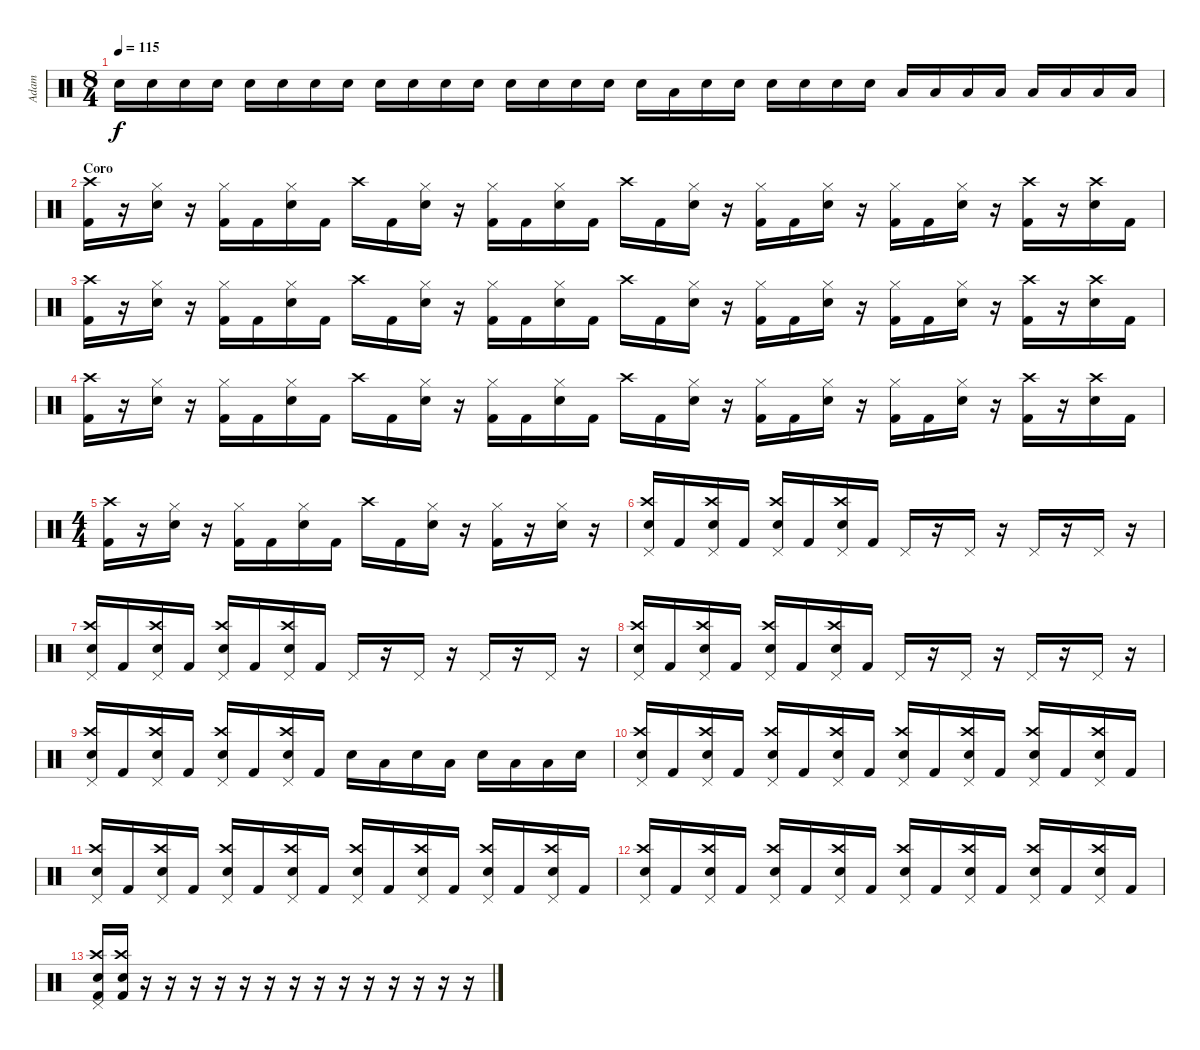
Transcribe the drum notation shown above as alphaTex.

\track ("Adam" "Adam") {instrument percussion}
\staff {score}
\articulation defaults
\ts (8 4)
\tempo 115
\clef neutral
\ks c "Snare (hit) 2".16{dy f} "Snare (hit) 2".16 "Snare (hit) 2".16 "Snare (hit) 2".16 "Snare (hit) 2".16 "Snare (hit) 2".16 "Snare (hit) 2".16 "Snare (hit) 2".16 "Snare (hit) 2".16 "Snare (hit) 2".16 "Snare (hit) 2".16 "Snare (hit) 2".16 "Snare (hit) 2".16 "Snare (hit) 2".16 "Snare (hit) 2".16 "Snare (hit) 2".16 "Snare (hit) 2".16 "Low Tom (hit)".16 "Snare (hit) 2".16 "Snare (hit) 2".16 "Snare (hit) 2".16 "Snare (hit) 2".16 "Snare (hit) 2".16 "Snare (hit) 2".16 "Low Tom (hit)".16 "Low Tom (hit)".16 "Low Tom (hit)".16 "Low Tom (hit)".16 "Low Floor Tom (hit)".16 "Low Floor Tom (hit)".16 "Low Floor Tom (hit)".16 "Low Floor Tom (hit)".16
|
\section ("" "Coro")
("Crash high (hit)" "Kick (hit) 2").16 r.16 ("Hi-Hat (closed)" "Snare (hit) 2").16 r.16 ("Hi-Hat (closed)" "Kick (hit) 2").16 "Kick (hit) 2".16 ("Hi-Hat (closed)" "Snare (hit) 2").16 "Kick (hit) 2".16 "Crash high (hit)".16 "Kick (hit) 2".16 ("Hi-Hat (closed)" "Snare (hit) 2").16 r.16 ("Hi-Hat (closed)" "Kick (hit) 2").16 "Kick (hit) 2".16 ("Hi-Hat (closed)" "Snare (hit) 2").16 "Kick (hit) 2".16 "Crash high (hit)".16 "Kick (hit) 2".16 ("Hi-Hat (closed)" "Snare (hit) 2").16 r.16 ("Hi-Hat (closed)" "Kick (hit) 2").16 "Kick (hit) 2".16 ("Hi-Hat (closed)" "Snare (hit) 2").16 r.16 ("Hi-Hat (closed)" "Kick (hit) 2").16 "Kick (hit) 2".16 ("Hi-Hat (closed)" "Snare (hit) 2").16 r.16 ("Crash high (hit)" "Kick (hit) 2").16 r.16 ("Crash high (hit)" "Snare (hit) 2").16 "Kick (hit) 2".16 |
("Crash high (hit)" "Kick (hit) 2").16 r.16 ("Hi-Hat (closed)" "Snare (hit) 2").16 r.16 ("Hi-Hat (closed)" "Kick (hit) 2").16 "Kick (hit) 2".16 ("Hi-Hat (closed)" "Snare (hit) 2").16 "Kick (hit) 2".16 "Crash high (hit)".16 "Kick (hit) 2".16 ("Hi-Hat (closed)" "Snare (hit) 2").16 r.16 ("Hi-Hat (closed)" "Kick (hit) 2").16 "Kick (hit) 2".16 ("Hi-Hat (closed)" "Snare (hit) 2").16 "Kick (hit) 2".16 "Crash high (hit)".16 "Kick (hit) 2".16 ("Hi-Hat (closed)" "Snare (hit) 2").16 r.16 ("Hi-Hat (closed)" "Kick (hit) 2").16 "Kick (hit) 2".16 ("Hi-Hat (closed)" "Snare (hit) 2").16 r.16 ("Hi-Hat (closed)" "Kick (hit) 2").16 "Kick (hit) 2".16 ("Hi-Hat (closed)" "Snare (hit) 2").16 r.16 ("Crash high (hit)" "Kick (hit) 2").16 r.16 ("Crash high (hit)" "Snare (hit) 2").16 "Kick (hit) 2".16 |
("Crash high (hit)" "Kick (hit) 2").16 r.16 ("Hi-Hat (closed)" "Snare (hit) 2").16 r.16 ("Hi-Hat (closed)" "Kick (hit) 2").16 "Kick (hit) 2".16 ("Hi-Hat (closed)" "Snare (hit) 2").16 "Kick (hit) 2".16 "Crash high (hit)".16 "Kick (hit) 2".16 ("Hi-Hat (closed)" "Snare (hit) 2").16 r.16 ("Hi-Hat (closed)" "Kick (hit) 2").16 "Kick (hit) 2".16 ("Hi-Hat (closed)" "Snare (hit) 2").16 "Kick (hit) 2".16 "Crash high (hit)".16 "Kick (hit) 2".16 ("Hi-Hat (closed)" "Snare (hit) 2").16 r.16 ("Hi-Hat (closed)" "Kick (hit) 2").16 "Kick (hit) 2".16 ("Hi-Hat (closed)" "Snare (hit) 2").16 r.16 ("Hi-Hat (closed)" "Kick (hit) 2").16 "Kick (hit) 2".16 ("Hi-Hat (closed)" "Snare (hit) 2").16 r.16 ("Crash high (hit)" "Kick (hit) 2").16 r.16 ("Crash high (hit)" "Snare (hit) 2").16 "Kick (hit) 2".16 |
\ts (4 4)
("Crash high (hit)" "Kick (hit) 2").16 r.16 ("Hi-Hat (closed)" "Snare (hit) 2").16 r.16 ("Hi-Hat (closed)" "Kick (hit) 2").16 "Kick (hit) 2".16 ("Hi-Hat (closed)" "Snare (hit) 2").16 "Kick (hit) 2".16 "Crash high (hit)".16 "Kick (hit) 2".16 ("Hi-Hat (closed)" "Snare (hit) 2").16 r.16 ("Hi-Hat (closed)" "Kick (hit) 2").16 r.16 ("Hi-Hat (closed)" "Snare (hit) 2").16 r.16 |
("Crash high (hit)" "Snare (hit) 2" "Pedal Hi-Hat (hit)").16 "Kick (hit) 2".16 ("Crash high (hit)" "Snare (hit) 2" "Pedal Hi-Hat (hit)").16 "Kick (hit) 2".16 ("Crash high (hit)" "Snare (hit) 2" "Pedal Hi-Hat (hit)").16 "Kick (hit) 2".16 ("Crash high (hit)" "Snare (hit) 2" "Pedal Hi-Hat (hit)").16 "Kick (hit) 2".16 "Pedal Hi-Hat (hit)".16 r.16 "Pedal Hi-Hat (hit)".16 r.16 "Pedal Hi-Hat (hit)".16 r.16 "Pedal Hi-Hat (hit)".16 r.16 |
("Crash high (hit)" "Snare (hit) 2" "Pedal Hi-Hat (hit)").16 "Kick (hit) 2".16 ("Crash high (hit)" "Snare (hit) 2" "Pedal Hi-Hat (hit)").16 "Kick (hit) 2".16 ("Crash high (hit)" "Snare (hit) 2" "Pedal Hi-Hat (hit)").16 "Kick (hit) 2".16 ("Crash high (hit)" "Snare (hit) 2" "Pedal Hi-Hat (hit)").16 "Kick (hit) 2".16 "Pedal Hi-Hat (hit)".16 r.16 "Pedal Hi-Hat (hit)".16 r.16 "Pedal Hi-Hat (hit)".16 r.16 "Pedal Hi-Hat (hit)".16 r.16 |
("Crash high (hit)" "Snare (hit) 2" "Pedal Hi-Hat (hit)").16 "Kick (hit) 2".16 ("Crash high (hit)" "Snare (hit) 2" "Pedal Hi-Hat (hit)").16 "Kick (hit) 2".16 ("Crash high (hit)" "Snare (hit) 2" "Pedal Hi-Hat (hit)").16 "Kick (hit) 2".16 ("Crash high (hit)" "Snare (hit) 2" "Pedal Hi-Hat (hit)").16 "Kick (hit) 2".16 "Pedal Hi-Hat (hit)".16 r.16 "Pedal Hi-Hat (hit)".16 r.16 "Pedal Hi-Hat (hit)".16 r.16 "Pedal Hi-Hat (hit)".16 r.16 |
("Crash high (hit)" "Snare (hit) 2" "Pedal Hi-Hat (hit)").16 "Kick (hit) 2".16 ("Crash high (hit)" "Snare (hit) 2" "Pedal Hi-Hat (hit)").16 "Kick (hit) 2".16 ("Crash high (hit)" "Snare (hit) 2" "Pedal Hi-Hat (hit)").16 "Kick (hit) 2".16 ("Crash high (hit)" "Snare (hit) 2" "Pedal Hi-Hat (hit)").16 "Kick (hit) 2".16 "Snare (hit) 2".16 "Low Tom (hit)".16 "Snare (hit) 2".16 "Low Tom (hit)".16 "Snare (hit) 2".16 "Low Floor Tom (hit)".16 "Low Floor Tom (hit)".16 "Snare (hit) 2".16 |
("Crash high (hit)" "Snare (hit) 2" "Pedal Hi-Hat (hit)").16 "Kick (hit) 2".16 ("Crash high (hit)" "Snare (hit) 2" "Pedal Hi-Hat (hit)").16 "Kick (hit) 2".16 ("Crash high (hit)" "Snare (hit) 2" "Pedal Hi-Hat (hit)").16 "Kick (hit) 2".16 ("Crash high (hit)" "Snare (hit) 2" "Pedal Hi-Hat (hit)").16 "Kick (hit) 2".16 ("Crash high (hit)" "Snare (hit) 2" "Pedal Hi-Hat (hit)").16 "Kick (hit) 2".16 ("Crash high (hit)" "Snare (hit) 2" "Pedal Hi-Hat (hit)").16 "Kick (hit) 2".16 ("Crash high (hit)" "Snare (hit) 2" "Pedal Hi-Hat (hit)").16 "Kick (hit) 2".16 ("Crash high (hit)" "Snare (hit) 2" "Pedal Hi-Hat (hit)").16 "Kick (hit) 2".16 |
("Crash high (hit)" "Snare (hit) 2" "Pedal Hi-Hat (hit)").16 "Kick (hit) 2".16 ("Crash high (hit)" "Snare (hit) 2" "Pedal Hi-Hat (hit)").16 "Kick (hit) 2".16 ("Crash high (hit)" "Snare (hit) 2" "Pedal Hi-Hat (hit)").16 "Kick (hit) 2".16 ("Crash high (hit)" "Snare (hit) 2" "Pedal Hi-Hat (hit)").16 "Kick (hit) 2".16 ("Crash high (hit)" "Snare (hit) 2" "Pedal Hi-Hat (hit)").16 "Kick (hit) 2".16 ("Crash high (hit)" "Snare (hit) 2" "Pedal Hi-Hat (hit)").16 "Kick (hit) 2".16 ("Crash high (hit)" "Snare (hit) 2" "Pedal Hi-Hat (hit)").16 "Kick (hit) 2".16 ("Crash high (hit)" "Snare (hit) 2" "Pedal Hi-Hat (hit)").16 "Kick (hit) 2".16 |
("Crash high (hit)" "Snare (hit) 2" "Pedal Hi-Hat (hit)").16 "Kick (hit) 2".16 ("Crash high (hit)" "Snare (hit) 2" "Pedal Hi-Hat (hit)").16 "Kick (hit) 2".16 ("Crash high (hit)" "Snare (hit) 2" "Pedal Hi-Hat (hit)").16 "Kick (hit) 2".16 ("Crash high (hit)" "Snare (hit) 2" "Pedal Hi-Hat (hit)").16 "Kick (hit) 2".16 ("Crash high (hit)" "Snare (hit) 2" "Pedal Hi-Hat (hit)").16 "Kick (hit) 2".16 ("Crash high (hit)" "Snare (hit) 2" "Pedal Hi-Hat (hit)").16 "Kick (hit) 2".16 ("Crash high (hit)" "Snare (hit) 2" "Pedal Hi-Hat (hit)").16 "Kick (hit) 2".16 ("Crash high (hit)" "Snare (hit) 2" "Pedal Hi-Hat (hit)").16 "Kick (hit) 2".16 |
("Crash high (hit)" "Snare (hit) 2" "Pedal Hi-Hat (hit)" "Kick (hit) 2").16 ("Crash high (hit)" "Snare (hit) 2" "Kick (hit) 2").16 r.16 r.16 r.16 r.16 r.16 r.16 r.16 r.16 r.16 r.16 r.16 r.16 r.16 r.16
